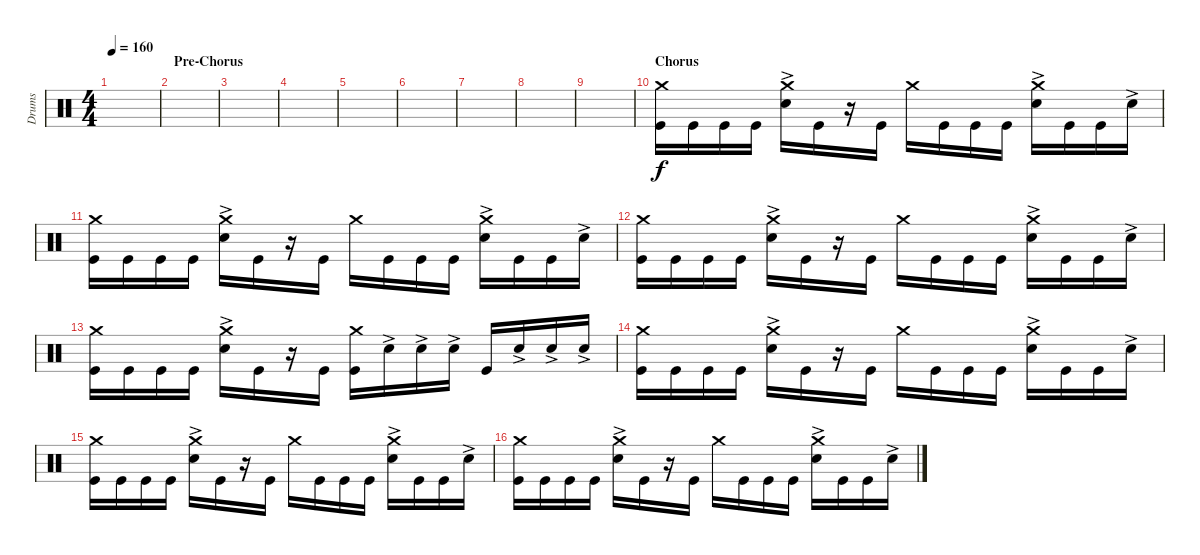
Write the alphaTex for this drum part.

\track ("Drums" "Drums") {instrument percussion}
\staff {score}
\articulation defaults
\ts (4 4)
\tempo 160
\clef neutral
\ks c
|
\section ("" "Pre-Chorus")
|
|
|
|
|
|
|
|
\section ("" "Chorus")
("Crash medium (hit)" "Kick (hit)").16 "Kick (hit)".16 "Kick (hit)".16 "Kick (hit)".16 ("Crash medium (hit)" "Snare (hit) 2"{ac}).16 "Kick (hit)".16 r.16 "Kick (hit)".16 "Crash medium (hit)".16 "Kick (hit)".16 "Kick (hit)".16 "Kick (hit)".16 ("Crash medium (hit)" "Snare (hit) 2"{ac}).16 "Kick (hit)".16 "Kick (hit)".16 "Snare (hit) 2"{ac}.16 |
("Crash medium (hit)" "Kick (hit)").16 "Kick (hit)".16 "Kick (hit)".16 "Kick (hit)".16 ("Crash medium (hit)" "Snare (hit) 2"{ac}).16 "Kick (hit)".16 r.16 "Kick (hit)".16 "Crash medium (hit)".16 "Kick (hit)".16 "Kick (hit)".16 "Kick (hit)".16 ("Crash medium (hit)" "Snare (hit) 2"{ac}).16 "Kick (hit)".16 "Kick (hit)".16 "Snare (hit) 2"{ac}.16 |
("Crash medium (hit)" "Kick (hit)").16 "Kick (hit)".16 "Kick (hit)".16 "Kick (hit)".16 ("Crash medium (hit)" "Snare (hit) 2"{ac}).16 "Kick (hit)".16 r.16 "Kick (hit)".16 "Crash medium (hit)".16 "Kick (hit)".16 "Kick (hit)".16 "Kick (hit)".16 ("Crash medium (hit)" "Snare (hit) 2"{ac}).16 "Kick (hit)".16 "Kick (hit)".16 "Snare (hit) 2"{ac}.16 |
("Crash medium (hit)" "Kick (hit)").16 "Kick (hit)".16 "Kick (hit)".16 "Kick (hit)".16 ("Crash medium (hit)" "Snare (hit) 2"{ac}).16 "Kick (hit)".16 r.16 "Kick (hit)".16 ("Kick (hit)" "Crash medium (hit)").16 "Snare (hit) 2"{ac}.16 "Snare (hit) 2"{ac}.16 "Snare (hit) 2"{ac}.16 "Kick (hit)".16 "Snare (hit) 2"{ac}.16 "Snare (hit) 2"{ac}.16 "Snare (hit) 2"{ac}.16 |
("Crash medium (hit)" "Kick (hit)").16 "Kick (hit)".16 "Kick (hit)".16 "Kick (hit)".16 ("Crash medium (hit)" "Snare (hit) 2"{ac}).16 "Kick (hit)".16 r.16 "Kick (hit)".16 "Crash medium (hit)".16 "Kick (hit)".16 "Kick (hit)".16 "Kick (hit)".16 ("Crash medium (hit)" "Snare (hit) 2"{ac}).16 "Kick (hit)".16 "Kick (hit)".16 "Snare (hit) 2"{ac}.16 |
("Crash medium (hit)" "Kick (hit)").16 "Kick (hit)".16 "Kick (hit)".16 "Kick (hit)".16 ("Crash medium (hit)" "Snare (hit) 2"{ac}).16 "Kick (hit)".16 r.16 "Kick (hit)".16 "Crash medium (hit)".16 "Kick (hit)".16 "Kick (hit)".16 "Kick (hit)".16 ("Crash medium (hit)" "Snare (hit) 2"{ac}).16 "Kick (hit)".16 "Kick (hit)".16 "Snare (hit) 2"{ac}.16 |
("Crash medium (hit)" "Kick (hit)").16 "Kick (hit)".16 "Kick (hit)".16 "Kick (hit)".16 ("Crash medium (hit)" "Snare (hit) 2"{ac}).16 "Kick (hit)".16 r.16 "Kick (hit)".16 "Crash medium (hit)".16 "Kick (hit)".16 "Kick (hit)".16 "Kick (hit)".16 ("Crash medium (hit)" "Snare (hit) 2"{ac}).16 "Kick (hit)".16 "Kick (hit)".16 "Snare (hit) 2"{ac}.16
